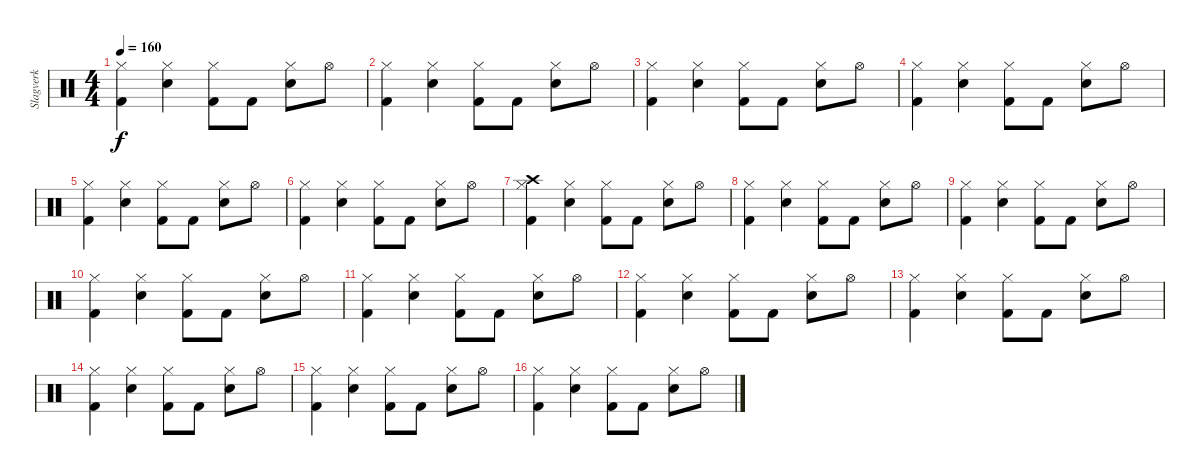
\track ("Slagverk" "Slagverk") {instrument percussion}
\staff {score}
\articulation defaults
\ts (4 4)
\tempo 160
\clef neutral
\ks c
("Hi-Hat (closed)" "Kick (hit) 2").4{dy f} ("Hi-Hat (closed)" "Snare (hit) 2").4 ("Hi-Hat (closed)" "Kick (hit) 2").8 "Kick (hit) 2".8 ("Hi-Hat (closed)" "Snare (hit) 2").8 "Hi-Hat (open)".8 |
("Hi-Hat (closed)" "Kick (hit) 2").4 ("Hi-Hat (closed)" "Snare (hit) 2").4 ("Hi-Hat (closed)" "Kick (hit) 2").8 "Kick (hit) 2".8 ("Hi-Hat (closed)" "Snare (hit) 2").8 "Hi-Hat (open)".8 |
("Hi-Hat (closed)" "Kick (hit) 2").4 ("Hi-Hat (closed)" "Snare (hit) 2").4 ("Hi-Hat (closed)" "Kick (hit) 2").8 "Kick (hit) 2".8 ("Hi-Hat (closed)" "Snare (hit) 2").8 "Hi-Hat (open)".8 |
("Hi-Hat (closed)" "Kick (hit) 2").4 ("Hi-Hat (closed)" "Snare (hit) 2").4 ("Hi-Hat (closed)" "Kick (hit) 2").8 "Kick (hit) 2".8 ("Hi-Hat (closed)" "Snare (hit) 2").8 "Hi-Hat (open)".8 |
("Hi-Hat (closed)" "Kick (hit) 2").4 ("Hi-Hat (closed)" "Snare (hit) 2").4 ("Hi-Hat (closed)" "Kick (hit) 2").8 "Kick (hit) 2".8 ("Hi-Hat (closed)" "Snare (hit) 2").8 "Hi-Hat (open)".8 |
("Hi-Hat (closed)" "Kick (hit) 2").4 ("Hi-Hat (closed)" "Snare (hit) 2").4 ("Hi-Hat (closed)" "Kick (hit) 2").8 "Kick (hit) 2".8 ("Hi-Hat (closed)" "Snare (hit) 2").8 "Hi-Hat (open)".8 |
("Hi-Hat (closed)" "Crash high (hit)" "Kick (hit) 2").4 ("Hi-Hat (closed)" "Snare (hit) 2").4 ("Hi-Hat (closed)" "Kick (hit) 2").8 "Kick (hit) 2".8 ("Hi-Hat (closed)" "Snare (hit) 2").8 "Hi-Hat (open)".8 |
("Hi-Hat (closed)" "Kick (hit) 2").4 ("Hi-Hat (closed)" "Snare (hit) 2").4 ("Hi-Hat (closed)" "Kick (hit) 2").8 "Kick (hit) 2".8 ("Hi-Hat (closed)" "Snare (hit) 2").8 "Hi-Hat (open)".8 |
("Hi-Hat (closed)" "Kick (hit) 2").4 ("Hi-Hat (closed)" "Snare (hit) 2").4 ("Hi-Hat (closed)" "Kick (hit) 2").8 "Kick (hit) 2".8 ("Hi-Hat (closed)" "Snare (hit) 2").8 "Hi-Hat (open)".8 |
("Hi-Hat (closed)" "Kick (hit) 2").4 ("Hi-Hat (closed)" "Snare (hit) 2").4 ("Hi-Hat (closed)" "Kick (hit) 2").8 "Kick (hit) 2".8 ("Hi-Hat (closed)" "Snare (hit) 2").8 "Hi-Hat (open)".8 |
("Hi-Hat (closed)" "Kick (hit) 2").4 ("Hi-Hat (closed)" "Snare (hit) 2").4 ("Hi-Hat (closed)" "Kick (hit) 2").8 "Kick (hit) 2".8 ("Hi-Hat (closed)" "Snare (hit) 2").8 "Hi-Hat (open)".8 |
("Hi-Hat (closed)" "Kick (hit) 2").4 ("Hi-Hat (closed)" "Snare (hit) 2").4 ("Hi-Hat (closed)" "Kick (hit) 2").8 "Kick (hit) 2".8 ("Hi-Hat (closed)" "Snare (hit) 2").8 "Hi-Hat (open)".8 |
("Hi-Hat (closed)" "Kick (hit) 2").4 ("Hi-Hat (closed)" "Snare (hit) 2").4 ("Hi-Hat (closed)" "Kick (hit) 2").8 "Kick (hit) 2".8 ("Hi-Hat (closed)" "Snare (hit) 2").8 "Hi-Hat (open)".8 |
("Hi-Hat (closed)" "Kick (hit) 2").4 ("Hi-Hat (closed)" "Snare (hit) 2").4 ("Hi-Hat (closed)" "Kick (hit) 2").8 "Kick (hit) 2".8 ("Hi-Hat (closed)" "Snare (hit) 2").8 "Hi-Hat (open)".8 |
("Hi-Hat (closed)" "Kick (hit) 2").4 ("Hi-Hat (closed)" "Snare (hit) 2").4 ("Hi-Hat (closed)" "Kick (hit) 2").8 "Kick (hit) 2".8 ("Hi-Hat (closed)" "Snare (hit) 2").8 "Hi-Hat (open)".8 |
("Hi-Hat (closed)" "Kick (hit) 2").4 ("Hi-Hat (closed)" "Snare (hit) 2").4 ("Hi-Hat (closed)" "Kick (hit) 2").8 "Kick (hit) 2".8 ("Hi-Hat (closed)" "Snare (hit) 2").8 "Hi-Hat (open)".8
